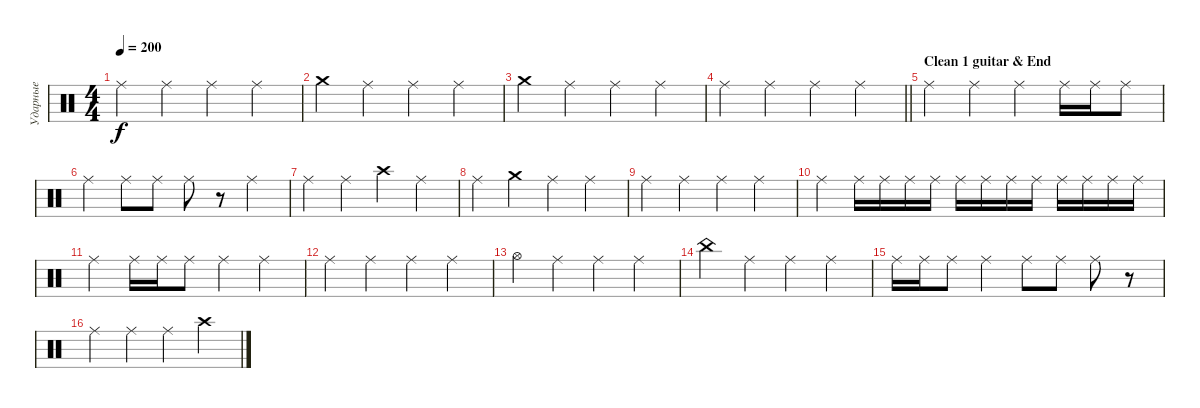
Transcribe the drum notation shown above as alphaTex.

\track ("Ударные" "Ударные") {instrument percussion}
\staff {score}
\articulation defaults
\ts (4 4)
\tempo 200
\clef neutral
\ks c "Ride (middle)".4{dy f} "Ride (middle)".4 "Ride (middle)".4 "Ride (middle)".4
|
"Crash medium (hit)".4 "Ride (middle)".4 "Ride (middle)".4 "Ride (middle)".4 |
"Crash medium (hit)".4 "Ride (middle)".4 "Ride (middle)".4 "Ride (middle)".4 |
\barLineRight lightlight "Ride (middle)".4 "Ride (middle)".4 "Ride (middle)".4 "Ride (middle)".4
|
\section ("" "Clean 1 guitar & End")
"Ride (middle)".4 "Ride (middle)".4 "Ride (middle)".4 "Ride (middle)".16 "Ride (middle)".16 "Ride (middle)".8 |
"Ride (middle)".4 "Ride (middle)".8 "Ride (middle)".8 "Ride (middle)".8 r.8 "Ride (middle)".4 |
"Ride (middle)".4 "Ride (middle)".4 "Crash high (hit)".4 "Ride (middle)".4 |
"Ride (middle)".4 "Crash medium (hit)".4 "Ride (middle)".4 "Ride (middle)".4 |
"Ride (middle)".4 "Ride (middle)".4 "Ride (middle)".4 "Ride (middle)".4 |
"Ride (middle)".4 "Ride (middle)".16 "Ride (middle)".16 "Ride (middle)".16 "Ride (middle)".16 "Ride (middle)".16 "Ride (middle)".16 "Ride (middle)".16 "Ride (middle)".16 "Ride (middle)".16 "Ride (middle)".16 "Ride (middle)".16 "Ride (middle)".16 |
"Ride (middle)".4 "Ride (middle)".16 "Ride (middle)".16 "Ride (middle)".8 "Ride (middle)".4 "Ride (middle)".4 |
"Ride (middle)".4 "Ride (middle)".4 "Ride (middle)".4 "Ride (middle)".4 |
"Hi-Hat (open)".4 "Ride (middle)".4 "Ride (middle)".4 "Ride (middle)".4 |
"China (hit)".4 "Ride (middle)".4 "Ride (middle)".4 "Ride (middle)".4 |
"Ride (middle)".16 "Ride (middle)".16 "Ride (middle)".8 "Ride (middle)".4 "Ride (middle)".8 "Ride (middle)".8 "Ride (middle)".8 r.8 |
"Ride (middle)".4 "Ride (middle)".4 "Ride (middle)".4 "Crash high (hit)".4
